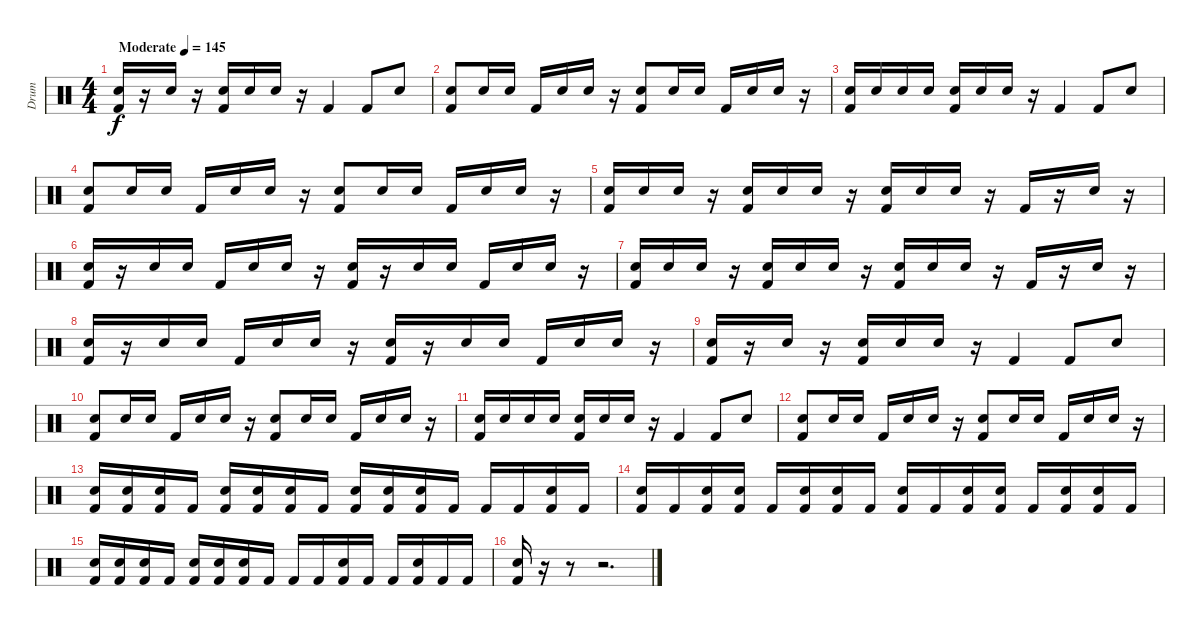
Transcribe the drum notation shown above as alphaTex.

\track ("Drum" "Drum") {instrument percussion}
\staff
\articulation defaults
\ts (4 4)
\tempo (145 "Moderate")
\clef neutral
\ks c
("Electric Snare (hit)" "Kick (hit) 2").16{dy f} r.16 "Electric Snare (hit)".16 r.16 ("Electric Snare (hit)" "Kick (hit) 2").16 "Electric Snare (hit)".16 "Electric Snare (hit)".16 r.16 "Kick (hit) 2".4 "Kick (hit) 2".8 "Electric Snare (hit)".8 |
("Electric Snare (hit)" "Kick (hit) 2").8 "Electric Snare (hit)".16 "Electric Snare (hit)".16 "Kick (hit) 2".16 "Electric Snare (hit)".16 "Electric Snare (hit)".16 r.16 ("Electric Snare (hit)" "Kick (hit) 2").8 "Electric Snare (hit)".16 "Electric Snare (hit)".16 "Kick (hit) 2".16 "Electric Snare (hit)".16 "Electric Snare (hit)".16 r.16 |
("Electric Snare (hit)" "Kick (hit) 2").16 "Electric Snare (hit)".16 "Electric Snare (hit)".16 "Electric Snare (hit)".16 ("Electric Snare (hit)" "Kick (hit) 2").16 "Electric Snare (hit)".16 "Electric Snare (hit)".16 r.16 "Kick (hit) 2".4 "Kick (hit) 2".8 "Electric Snare (hit)".8 |
("Electric Snare (hit)" "Kick (hit) 2").8 "Electric Snare (hit)".16 "Electric Snare (hit)".16 "Kick (hit) 2".16 "Electric Snare (hit)".16 "Electric Snare (hit)".16 r.16 ("Electric Snare (hit)" "Kick (hit) 2").8 "Electric Snare (hit)".16 "Electric Snare (hit)".16 "Kick (hit) 2".16 "Electric Snare (hit)".16 "Electric Snare (hit)".16 r.16 |
("Electric Snare (hit)" "Kick (hit) 2").16 "Electric Snare (hit)".16 "Electric Snare (hit)".16 r.16 ("Electric Snare (hit)" "Kick (hit) 2").16 "Electric Snare (hit)".16 "Electric Snare (hit)".16 r.16 ("Electric Snare (hit)" "Kick (hit) 2").16 "Electric Snare (hit)".16 "Electric Snare (hit)".16 r.16 "Kick (hit) 2".16 r.16 "Electric Snare (hit)".16 r.16 |
("Electric Snare (hit)" "Kick (hit) 2").16 r.16 "Electric Snare (hit)".16 "Electric Snare (hit)".16 "Kick (hit) 2".16 "Electric Snare (hit)".16 "Electric Snare (hit)".16 r.16 ("Electric Snare (hit)" "Kick (hit) 2").16 r.16 "Electric Snare (hit)".16 "Electric Snare (hit)".16 "Kick (hit) 2".16 "Electric Snare (hit)".16 "Electric Snare (hit)".16 r.16 |
("Electric Snare (hit)" "Kick (hit) 2").16 "Electric Snare (hit)".16 "Electric Snare (hit)".16 r.16 ("Electric Snare (hit)" "Kick (hit) 2").16 "Electric Snare (hit)".16 "Electric Snare (hit)".16 r.16 ("Electric Snare (hit)" "Kick (hit) 2").16 "Electric Snare (hit)".16 "Electric Snare (hit)".16 r.16 "Kick (hit) 2".16 r.16 "Electric Snare (hit)".16 r.16 |
("Electric Snare (hit)" "Kick (hit) 2").16 r.16 "Electric Snare (hit)".16 "Electric Snare (hit)".16 "Kick (hit) 2".16 "Electric Snare (hit)".16 "Electric Snare (hit)".16 r.16 ("Electric Snare (hit)" "Kick (hit) 2").16 r.16 "Electric Snare (hit)".16 "Electric Snare (hit)".16 "Kick (hit) 2".16 "Electric Snare (hit)".16 "Electric Snare (hit)".16 r.16 |
("Electric Snare (hit)" "Kick (hit) 2").16 r.16 "Electric Snare (hit)".16 r.16 ("Electric Snare (hit)" "Kick (hit) 2").16 "Electric Snare (hit)".16 "Electric Snare (hit)".16 r.16 "Kick (hit) 2".4 "Kick (hit) 2".8 "Electric Snare (hit)".8 |
("Electric Snare (hit)" "Kick (hit) 2").8 "Electric Snare (hit)".16 "Electric Snare (hit)".16 "Kick (hit) 2".16 "Electric Snare (hit)".16 "Electric Snare (hit)".16 r.16 ("Electric Snare (hit)" "Kick (hit) 2").8 "Electric Snare (hit)".16 "Electric Snare (hit)".16 "Kick (hit) 2".16 "Electric Snare (hit)".16 "Electric Snare (hit)".16 r.16 |
("Electric Snare (hit)" "Kick (hit) 2").16 "Electric Snare (hit)".16 "Electric Snare (hit)".16 "Electric Snare (hit)".16 ("Electric Snare (hit)" "Kick (hit) 2").16 "Electric Snare (hit)".16 "Electric Snare (hit)".16 r.16 "Kick (hit) 2".4 "Kick (hit) 2".8 "Electric Snare (hit)".8 |
("Electric Snare (hit)" "Kick (hit) 2").8 "Electric Snare (hit)".16 "Electric Snare (hit)".16 "Kick (hit) 2".16 "Electric Snare (hit)".16 "Electric Snare (hit)".16 r.16 ("Electric Snare (hit)" "Kick (hit) 2").8 "Electric Snare (hit)".16 "Electric Snare (hit)".16 "Kick (hit) 2".16 "Electric Snare (hit)".16 "Electric Snare (hit)".16 r.16 |
("Electric Snare (hit)" "Kick (hit) 2").16 ("Electric Snare (hit)" "Kick (hit) 2").16 ("Electric Snare (hit)" "Kick (hit) 2").16 "Kick (hit) 2".16 ("Electric Snare (hit)" "Kick (hit) 2").16 ("Electric Snare (hit)" "Kick (hit) 2").16 ("Electric Snare (hit)" "Kick (hit) 2").16 "Kick (hit) 2".16 ("Electric Snare (hit)" "Kick (hit) 2").16 ("Electric Snare (hit)" "Kick (hit) 2").16 ("Electric Snare (hit)" "Kick (hit) 2").16 "Kick (hit) 2".16 "Kick (hit) 2".16 "Kick (hit) 2".16 ("Electric Snare (hit)" "Kick (hit) 2").16 "Kick (hit) 2".16 |
("Electric Snare (hit)" "Kick (hit) 2").16 "Kick (hit) 2".16 ("Electric Snare (hit)" "Kick (hit) 2").16 ("Electric Snare (hit)" "Kick (hit) 2").16 "Kick (hit) 2".16 ("Electric Snare (hit)" "Kick (hit) 2").16 ("Electric Snare (hit)" "Kick (hit) 2").16 "Kick (hit) 2".16 ("Electric Snare (hit)" "Kick (hit) 2").16 "Kick (hit) 2".16 ("Electric Snare (hit)" "Kick (hit) 2").16 ("Electric Snare (hit)" "Kick (hit) 2").16 "Kick (hit) 2".16 ("Electric Snare (hit)" "Kick (hit) 2").16 ("Electric Snare (hit)" "Kick (hit) 2").16 "Kick (hit) 2".16 |
("Electric Snare (hit)" "Kick (hit) 2").16 ("Electric Snare (hit)" "Kick (hit) 2").16 ("Electric Snare (hit)" "Kick (hit) 2").16 "Kick (hit) 2".16 ("Electric Snare (hit)" "Kick (hit) 2").16 ("Electric Snare (hit)" "Kick (hit) 2").16 ("Electric Snare (hit)" "Kick (hit) 2").16 "Kick (hit) 2".16 "Kick (hit) 2".16 "Kick (hit) 2".16 ("Electric Snare (hit)" "Kick (hit) 2").16 "Kick (hit) 2".16 "Kick (hit) 2".16 ("Electric Snare (hit)" "Kick (hit) 2").16 "Kick (hit) 2".16 "Kick (hit) 2".16 |
("Electric Snare (hit)" "Kick (hit) 2").16 r.16 r.8 r.2{d}
